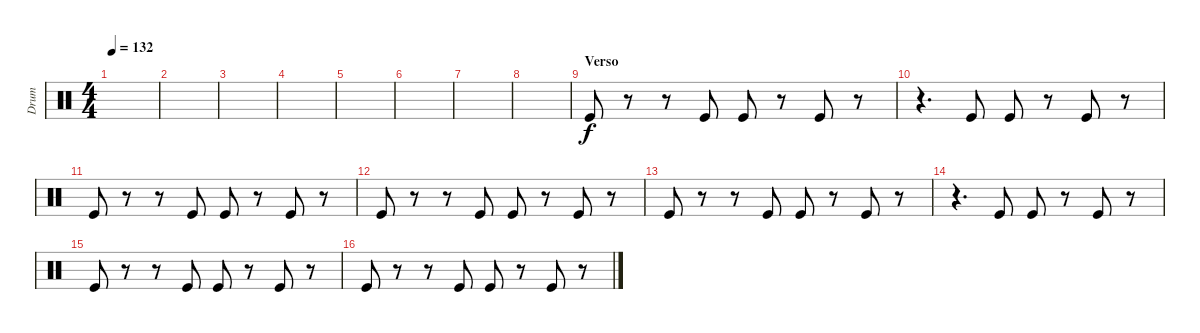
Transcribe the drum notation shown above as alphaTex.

\track ("Drum" "Drum") {instrument percussion}
\staff {score}
\articulation defaults
\ts (4 4)
\tempo 132
\clef neutral
\ks c
|
|
|
|
|
|
|
|
\section ("" "Verso")
"Kick (hit)".8 r.8 r.8 "Kick (hit)".8 "Kick (hit)".8 r.8 "Kick (hit)".8 r.8 |
r.4{d} "Kick (hit)".8 "Kick (hit)".8 r.8 "Kick (hit)".8 r.8 |
"Kick (hit)".8 r.8 r.8 "Kick (hit)".8 "Kick (hit)".8 r.8 "Kick (hit)".8 r.8 |
"Kick (hit)".8 r.8 r.8 "Kick (hit)".8 "Kick (hit)".8 r.8 "Kick (hit)".8 r.8 |
"Kick (hit)".8 r.8 r.8 "Kick (hit)".8 "Kick (hit)".8 r.8 "Kick (hit)".8 r.8 |
r.4{d} "Kick (hit)".8 "Kick (hit)".8 r.8 "Kick (hit)".8 r.8 |
"Kick (hit)".8 r.8 r.8 "Kick (hit)".8 "Kick (hit)".8 r.8 "Kick (hit)".8 r.8 |
"Kick (hit)".8 r.8 r.8 "Kick (hit)".8 "Kick (hit)".8 r.8 "Kick (hit)".8 r.8
